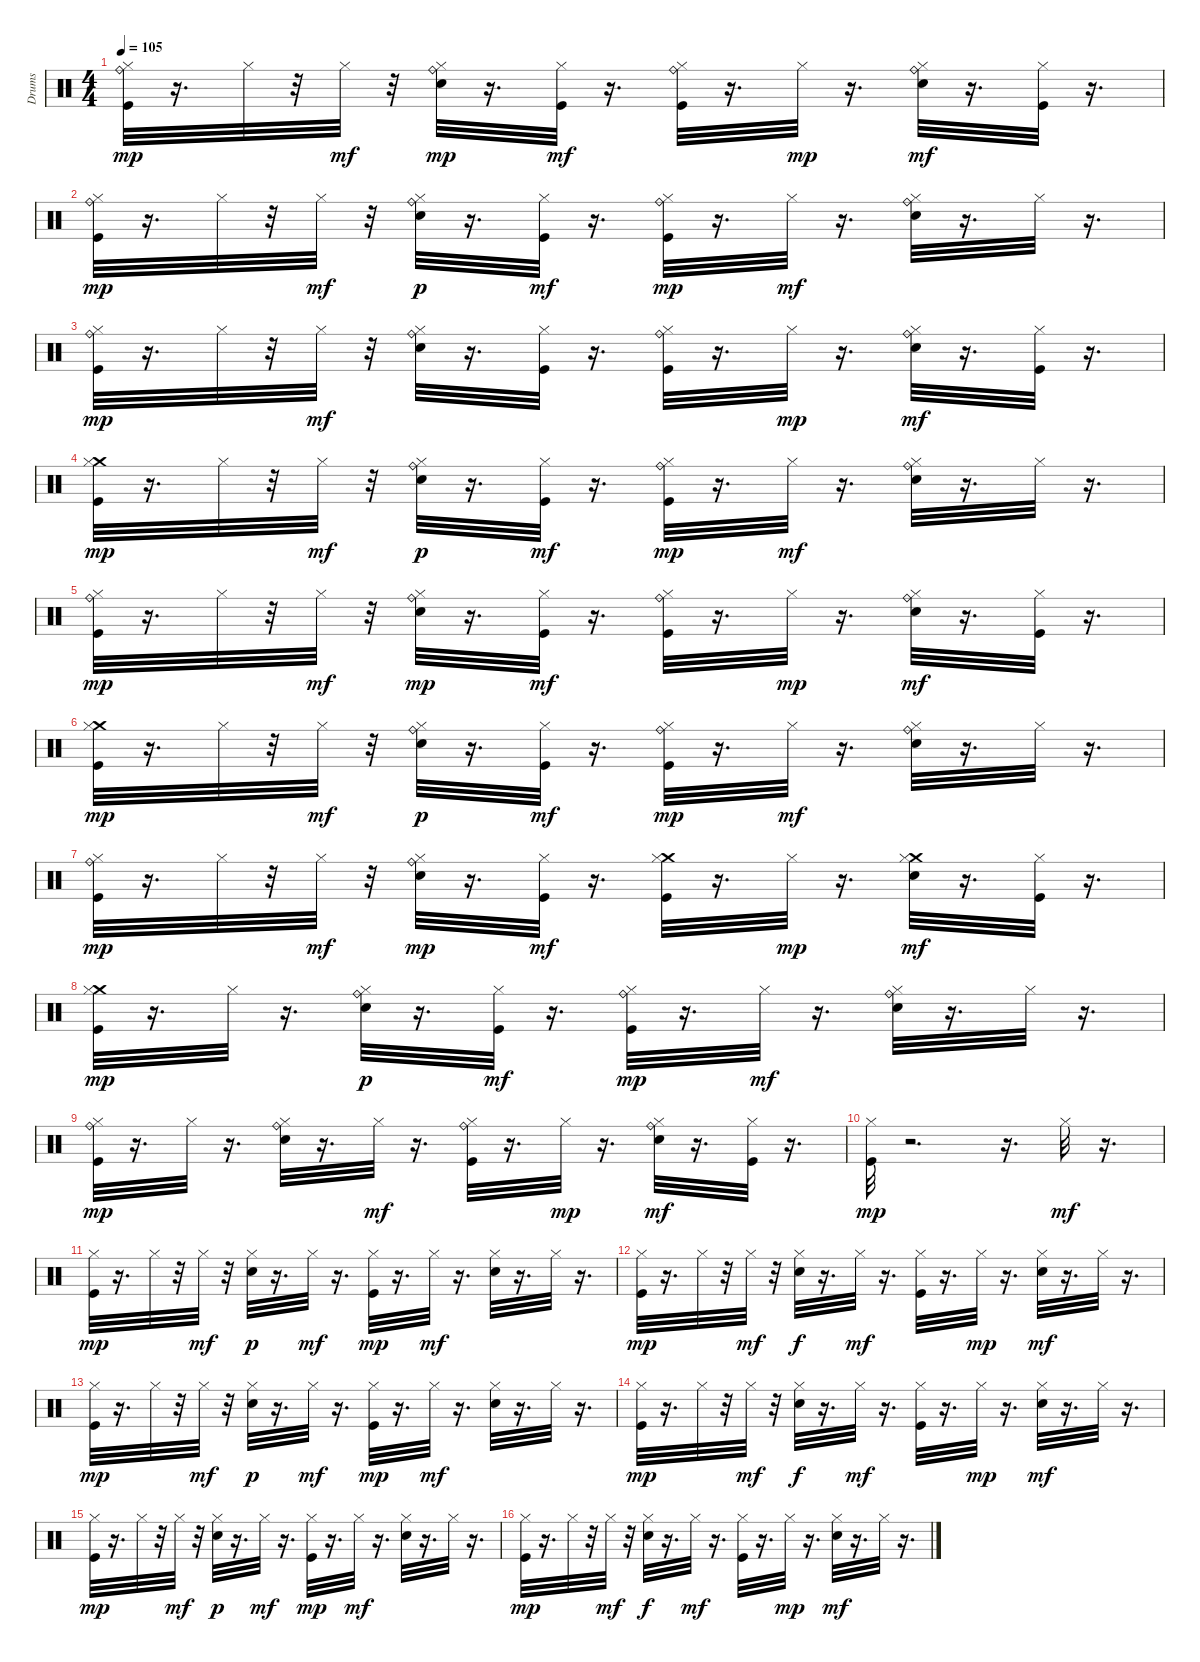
\track ("Drums" "Drums") {instrument percussion}
\staff {score}
\articulation defaults
\ts (4 4)
\tempo 105
\clef neutral
\ks c
("Ride (bell)" "Kick (hit)" "Hi-Hat (closed)").32{dy mp} r.16{d} "Hi-Hat (closed)".32 r.32 "Hi-Hat (closed)".32{dy mf} r.32 ("Snare (hit) 2" "Ride (bell)" "Hi-Hat (closed)").32{dy mp} r.16{d} ("Kick (hit)" "Hi-Hat (closed)").32{dy mf} r.16{d} ("Ride (bell)" "Kick (hit)" "Hi-Hat (closed)").32 r.16{d} "Hi-Hat (closed)".32{dy mp} r.16{d} ("Snare (hit) 2" "Ride (bell)" "Hi-Hat (closed)").32{dy mf} r.16{d} ("Kick (hit)" "Hi-Hat (closed)").32 r.16{d} |
("Ride (bell)" "Kick (hit)" "Hi-Hat (closed)").32{dy mp} r.16{d} "Hi-Hat (closed)".32 r.32 "Hi-Hat (closed)".32{dy mf} r.32 ("Snare (hit) 2" "Ride (bell)" "Hi-Hat (closed)").32{dy p} r.16{d} ("Kick (hit)" "Hi-Hat (closed)").32{dy mf} r.16{d} ("Ride (bell)" "Kick (hit)" "Hi-Hat (closed)").32{dy mp} r.16{d} "Hi-Hat (closed)".32{dy mf} r.16{d} ("Snare (hit) 2" "Ride (bell)" "Hi-Hat (closed)").32 r.16{d} "Hi-Hat (closed)".32 r.16{d} |
("Ride (bell)" "Kick (hit)" "Hi-Hat (closed)").32{dy mp} r.16{d} "Hi-Hat (closed)".32 r.32 "Hi-Hat (closed)".32{dy mf} r.32 ("Snare (hit) 2" "Ride (bell)" "Hi-Hat (closed)").32 r.16{d} ("Kick (hit)" "Hi-Hat (closed)").32 r.16{d} ("Ride (bell)" "Kick (hit)" "Hi-Hat (closed)").32 r.16{d} "Hi-Hat (closed)".32{dy mp} r.16{d} ("Snare (hit) 2" "Ride (bell)" "Hi-Hat (closed)").32{dy mf} r.16{d} ("Kick (hit)" "Hi-Hat (closed)").32 r.16{d} |
("Crash medium (hit)" "Kick (hit)" "Hi-Hat (closed)").32{dy mp} r.16{d} "Hi-Hat (closed)".32 r.32 "Hi-Hat (closed)".32{dy mf} r.32 ("Snare (hit) 2" "Ride (bell)" "Hi-Hat (closed)").32{dy p} r.16{d} ("Kick (hit)" "Hi-Hat (closed)").32{dy mf} r.16{d} ("Ride (bell)" "Kick (hit)" "Hi-Hat (closed)").32{dy mp} r.16{d} "Hi-Hat (closed)".32{dy mf} r.16{d} ("Snare (hit) 2" "Ride (bell)" "Hi-Hat (closed)").32 r.16{d} "Hi-Hat (closed)".32 r.16{d} |
("Ride (bell)" "Kick (hit)" "Hi-Hat (closed)").32{dy mp} r.16{d} "Hi-Hat (closed)".32 r.32 "Hi-Hat (closed)".32{dy mf} r.32 ("Snare (hit) 2" "Ride (bell)" "Hi-Hat (closed)").32{dy mp} r.16{d} ("Kick (hit)" "Hi-Hat (closed)").32{dy mf} r.16{d} ("Ride (bell)" "Kick (hit)" "Hi-Hat (closed)").32 r.16{d} "Hi-Hat (closed)".32{dy mp} r.16{d} ("Snare (hit) 2" "Ride (bell)" "Hi-Hat (closed)").32{dy mf} r.16{d} ("Kick (hit)" "Hi-Hat (closed)").32 r.16{d} |
("Crash medium (hit)" "Kick (hit)" "Hi-Hat (closed)").32{dy mp} r.16{d} "Hi-Hat (closed)".32 r.32 "Hi-Hat (closed)".32{dy mf} r.32 ("Snare (hit) 2" "Ride (bell)" "Hi-Hat (closed)").32{dy p} r.16{d} ("Kick (hit)" "Hi-Hat (closed)").32{dy mf} r.16{d} ("Ride (bell)" "Kick (hit)" "Hi-Hat (closed)").32{dy mp} r.16{d} "Hi-Hat (closed)".32{dy mf} r.16{d} ("Snare (hit) 2" "Ride (bell)" "Hi-Hat (closed)").32 r.16{d} "Hi-Hat (closed)".32 r.16{d} |
("Ride (bell)" "Kick (hit)" "Hi-Hat (closed)").32{dy mp} r.16{d} "Hi-Hat (closed)".32 r.32 "Hi-Hat (closed)".32{dy mf} r.32 ("Snare (hit) 2" "Ride (bell)" "Hi-Hat (closed)").32{dy mp} r.16{d} ("Kick (hit)" "Hi-Hat (closed)").32{dy mf} r.16{d} ("Crash medium (hit)" "Kick (hit)" "Hi-Hat (closed)").32 r.16{d} "Hi-Hat (closed)".32{dy mp} r.16{d} ("Crash medium (hit)" "Snare (hit) 2" "Hi-Hat (closed)").32{dy mf} r.16{d} ("Kick (hit)" "Hi-Hat (closed)").32 r.16{d} |
("Crash medium (hit)" "Kick (hit)" "Hi-Hat (closed)").32{dy mp} r.16{d} "Hi-Hat (closed)".32 r.16{d} ("Snare (hit) 2" "Ride (bell)" "Hi-Hat (closed)").32{dy p} r.16{d} ("Kick (hit)" "Hi-Hat (closed)").32{dy mf} r.16{d} ("Ride (bell)" "Kick (hit)" "Hi-Hat (closed)").32{dy mp} r.16{d} "Hi-Hat (closed)".32{dy mf} r.16{d} ("Snare (hit) 2" "Ride (bell)" "Hi-Hat (closed)").32 r.16{d} "Hi-Hat (closed)".32 r.16{d} |
("Ride (bell)" "Kick (hit)" "Hi-Hat (closed)").32{dy mp} r.16{d} "Hi-Hat (closed)".32 r.16{d} ("Snare (hit) 2" "Ride (bell)" "Hi-Hat (closed)").32 r.16{d} "Hi-Hat (closed)".32{dy mf} r.16{d} ("Ride (bell)" "Kick (hit)" "Hi-Hat (closed)").32 r.16{d} "Hi-Hat (closed)".32{dy mp} r.16{d} ("Snare (hit) 2" "Ride (bell)" "Hi-Hat (closed)").32{dy mf} r.16{d} ("Kick (hit)" "Hi-Hat (closed)").32 r.16{d} |
("Kick (hit)" "Hi-Hat (closed)").32{dy mp} r.2{d} r.16{d} "Hi-Hat (closed)".32{dy mf} r.16{d} |
("Kick (hit)" "Hi-Hat (closed)").32{dy mp} r.16{d} "Hi-Hat (closed)".32 r.32 "Hi-Hat (closed)".32{dy mf} r.32 ("Snare (hit) 2" "Hi-Hat (closed)").32{dy p} r.16{d} "Hi-Hat (closed)".32{dy mf} r.16{d} ("Kick (hit)" "Hi-Hat (closed)").32{dy mp} r.16{d} "Hi-Hat (closed)".32{dy mf} r.16{d} ("Snare (hit) 2" "Hi-Hat (closed)").32 r.16{d} "Hi-Hat (closed)".32 r.16{d} |
("Kick (hit)" "Hi-Hat (closed)").32{dy mp} r.16{d} "Hi-Hat (closed)".32 r.32 "Hi-Hat (closed)".32{dy mf} r.32 ("Snare (hit) 2" "Hi-Hat (closed)").32{dy f} r.16{d} "Hi-Hat (closed)".32{dy mf} r.16{d} ("Kick (hit)" "Hi-Hat (closed)").32 r.16{d} "Hi-Hat (closed)".32{dy mp} r.16{d} ("Snare (hit) 2" "Hi-Hat (closed)").32{dy mf} r.16{d} "Hi-Hat (closed)".32 r.16{d} |
("Kick (hit)" "Hi-Hat (closed)").32{dy mp} r.16{d} "Hi-Hat (closed)".32 r.32 "Hi-Hat (closed)".32{dy mf} r.32 ("Snare (hit) 2" "Hi-Hat (closed)").32{dy p} r.16{d} "Hi-Hat (closed)".32{dy mf} r.16{d} ("Kick (hit)" "Hi-Hat (closed)").32{dy mp} r.16{d} "Hi-Hat (closed)".32{dy mf} r.16{d} ("Snare (hit) 2" "Hi-Hat (closed)").32 r.16{d} "Hi-Hat (closed)".32 r.16{d} |
("Kick (hit)" "Hi-Hat (closed)").32{dy mp} r.16{d} "Hi-Hat (closed)".32 r.32 "Hi-Hat (closed)".32{dy mf} r.32 ("Snare (hit) 2" "Hi-Hat (closed)").32{dy f} r.16{d} "Hi-Hat (closed)".32{dy mf} r.16{d} ("Kick (hit)" "Hi-Hat (closed)").32 r.16{d} "Hi-Hat (closed)".32{dy mp} r.16{d} ("Snare (hit) 2" "Hi-Hat (closed)").32{dy mf} r.16{d} "Hi-Hat (closed)".32 r.16{d} |
("Kick (hit)" "Hi-Hat (closed)").32{dy mp} r.16{d} "Hi-Hat (closed)".32 r.32 "Hi-Hat (closed)".32{dy mf} r.32 ("Snare (hit) 2" "Hi-Hat (closed)").32{dy p} r.16{d} "Hi-Hat (closed)".32{dy mf} r.16{d} ("Kick (hit)" "Hi-Hat (closed)").32{dy mp} r.16{d} "Hi-Hat (closed)".32{dy mf} r.16{d} ("Snare (hit) 2" "Hi-Hat (closed)").32 r.16{d} "Hi-Hat (closed)".32 r.16{d} |
("Kick (hit)" "Hi-Hat (closed)").32{dy mp} r.16{d} "Hi-Hat (closed)".32 r.32 "Hi-Hat (closed)".32{dy mf} r.32 ("Snare (hit) 2" "Hi-Hat (closed)").32{dy f} r.16{d} "Hi-Hat (closed)".32{dy mf} r.16{d} ("Kick (hit)" "Hi-Hat (closed)").32 r.16{d} "Hi-Hat (closed)".32{dy mp} r.16{d} ("Snare (hit) 2" "Hi-Hat (closed)").32{dy mf} r.16{d} "Hi-Hat (closed)".32 r.16{d}
